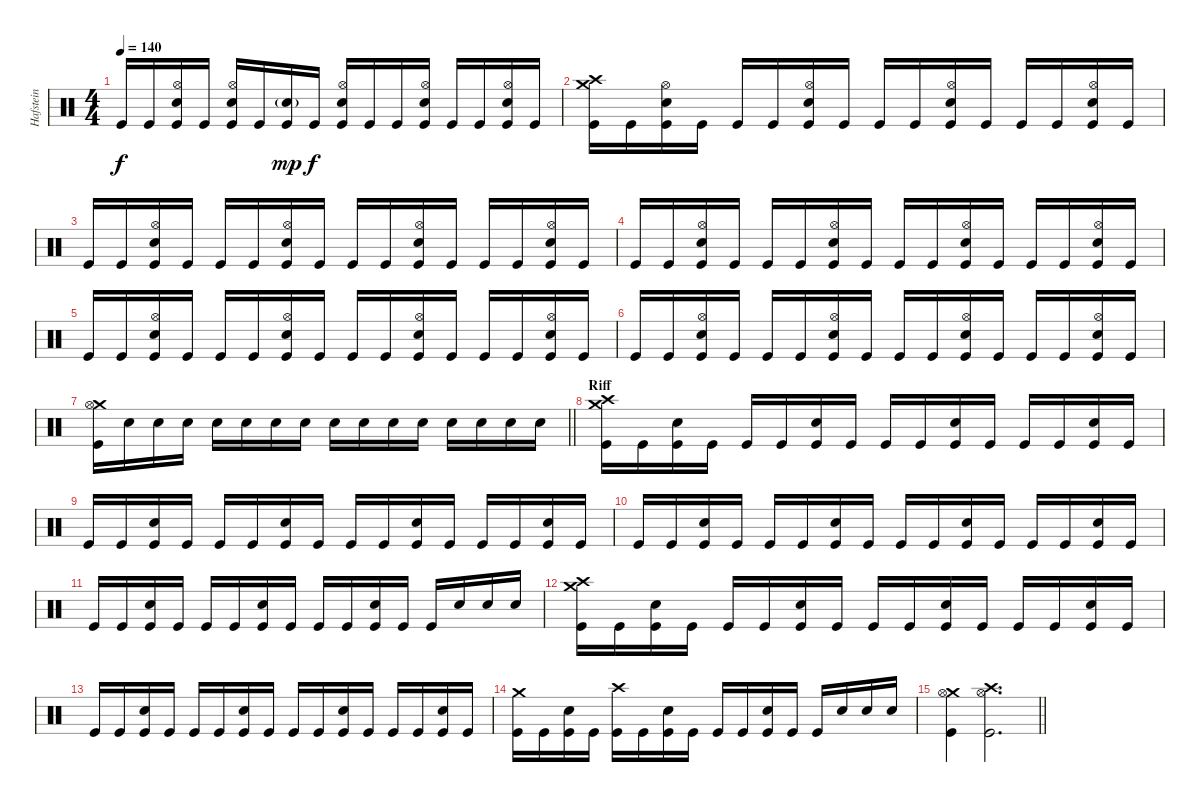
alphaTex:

\track ("Hafstein" "Hafstein") {instrument percussion}
\staff {score}
\articulation defaults
\ts (4 4)
\tempo 140
\clef neutral
\ks c "Kick (hit)".16{dy f} "Kick (hit)".16
("Hi-Hat (open)" "Electric Snare (hit)" "Kick (hit)").16 "Kick (hit)".16 ("Hi-Hat (open)" "Electric Snare (hit)" "Kick (hit)").16 "Kick (hit)".16 ("Electric Snare (hit)"{g} "Kick (hit)").16{dy mp} "Kick (hit)".16{dy f} ("Hi-Hat (open)" "Electric Snare (hit)" "Kick (hit)").16 "Kick (hit)".16 "Kick (hit)".16 ("Hi-Hat (open)" "Electric Snare (hit)" "Kick (hit)").16 "Kick (hit)".16 "Kick (hit)".16 ("Hi-Hat (open)" "Electric Snare (hit)" "Kick (hit)").16 "Kick (hit)".16 |
("Crash medium (hit)" "Crash high (hit)" "Kick (hit)").16 "Kick (hit)".16 ("Hi-Hat (open)" "Electric Snare (hit)" "Kick (hit)").16 "Kick (hit)".16 "Kick (hit)".16 "Kick (hit)".16 ("Hi-Hat (open)" "Electric Snare (hit)" "Kick (hit)").16 "Kick (hit)".16 "Kick (hit)".16 "Kick (hit)".16 ("Hi-Hat (open)" "Electric Snare (hit)" "Kick (hit)").16 "Kick (hit)".16 "Kick (hit)".16 "Kick (hit)".16 ("Hi-Hat (open)" "Electric Snare (hit)" "Kick (hit)").16 "Kick (hit)".16 |
"Kick (hit)".16 "Kick (hit)".16 ("Hi-Hat (open)" "Electric Snare (hit)" "Kick (hit)").16 "Kick (hit)".16 "Kick (hit)".16 "Kick (hit)".16 ("Hi-Hat (open)" "Electric Snare (hit)" "Kick (hit)").16 "Kick (hit)".16 "Kick (hit)".16 "Kick (hit)".16 ("Hi-Hat (open)" "Electric Snare (hit)" "Kick (hit)").16 "Kick (hit)".16 "Kick (hit)".16 "Kick (hit)".16 ("Hi-Hat (open)" "Electric Snare (hit)" "Kick (hit)").16 "Kick (hit)".16 |
"Kick (hit)".16 "Kick (hit)".16 ("Hi-Hat (open)" "Electric Snare (hit)" "Kick (hit)").16 "Kick (hit)".16 "Kick (hit)".16 "Kick (hit)".16 ("Hi-Hat (open)" "Electric Snare (hit)" "Kick (hit)").16 "Kick (hit)".16 "Kick (hit)".16 "Kick (hit)".16 ("Hi-Hat (open)" "Electric Snare (hit)" "Kick (hit)").16 "Kick (hit)".16 "Kick (hit)".16 "Kick (hit)".16 ("Hi-Hat (open)" "Electric Snare (hit)" "Kick (hit)").16 "Kick (hit)".16 |
"Kick (hit)".16 "Kick (hit)".16 ("Hi-Hat (open)" "Electric Snare (hit)" "Kick (hit)").16 "Kick (hit)".16 "Kick (hit)".16 "Kick (hit)".16 ("Hi-Hat (open)" "Electric Snare (hit)" "Kick (hit)").16 "Kick (hit)".16 "Kick (hit)".16 "Kick (hit)".16 ("Hi-Hat (open)" "Electric Snare (hit)" "Kick (hit)").16 "Kick (hit)".16 "Kick (hit)".16 "Kick (hit)".16 ("Hi-Hat (open)" "Electric Snare (hit)" "Kick (hit)").16 "Kick (hit)".16 |
"Kick (hit)".16 "Kick (hit)".16 ("Hi-Hat (open)" "Electric Snare (hit)" "Kick (hit)").16 "Kick (hit)".16 "Kick (hit)".16 "Kick (hit)".16 ("Hi-Hat (open)" "Electric Snare (hit)" "Kick (hit)").16 "Kick (hit)".16 "Kick (hit)".16 "Kick (hit)".16 ("Hi-Hat (open)" "Electric Snare (hit)" "Kick (hit)").16 "Kick (hit)".16 "Kick (hit)".16 "Kick (hit)".16 ("Hi-Hat (open)" "Electric Snare (hit)" "Kick (hit)").16 "Kick (hit)".16 |
\barLineRight lightlight
("Crash medium (hit)" "Hi-Hat (open)" "Kick (hit)").16 "Electric Snare (hit)".16 "Electric Snare (hit)".16 "Electric Snare (hit)".16 "Electric Snare (hit)".16 "Electric Snare (hit)".16 "Electric Snare (hit)".16 "Electric Snare (hit)".16 "Electric Snare (hit)".16 "Electric Snare (hit)".16 "Electric Snare (hit)".16 "Electric Snare (hit)".16 "Electric Snare (hit)".16 "Electric Snare (hit)".16 "Electric Snare (hit)".16 "Electric Snare (hit)".16 |
\section ("" "Riff")
("Crash medium (hit)" "Crash high (hit)" "Kick (hit)").16 "Kick (hit)".16 ("Electric Snare (hit)" "Kick (hit)").16 "Kick (hit)".16 "Kick (hit)".16 "Kick (hit)".16 ("Electric Snare (hit)" "Kick (hit)").16 "Kick (hit)".16 "Kick (hit)".16 "Kick (hit)".16 ("Electric Snare (hit)" "Kick (hit)").16 "Kick (hit)".16 "Kick (hit)".16 "Kick (hit)".16 ("Electric Snare (hit)" "Kick (hit)").16 "Kick (hit)".16 |
"Kick (hit)".16 "Kick (hit)".16 ("Electric Snare (hit)" "Kick (hit)").16 "Kick (hit)".16 "Kick (hit)".16 "Kick (hit)".16 ("Electric Snare (hit)" "Kick (hit)").16 "Kick (hit)".16 "Kick (hit)".16 "Kick (hit)".16 ("Electric Snare (hit)" "Kick (hit)").16 "Kick (hit)".16 "Kick (hit)".16 "Kick (hit)".16 ("Electric Snare (hit)" "Kick (hit)").16 "Kick (hit)".16 |
"Kick (hit)".16 "Kick (hit)".16 ("Electric Snare (hit)" "Kick (hit)").16 "Kick (hit)".16 "Kick (hit)".16 "Kick (hit)".16 ("Electric Snare (hit)" "Kick (hit)").16 "Kick (hit)".16 "Kick (hit)".16 "Kick (hit)".16 ("Electric Snare (hit)" "Kick (hit)").16 "Kick (hit)".16 "Kick (hit)".16 "Kick (hit)".16 ("Electric Snare (hit)" "Kick (hit)").16 "Kick (hit)".16 |
"Kick (hit)".16 "Kick (hit)".16 ("Electric Snare (hit)" "Kick (hit)").16 "Kick (hit)".16 "Kick (hit)".16 "Kick (hit)".16 ("Electric Snare (hit)" "Kick (hit)").16 "Kick (hit)".16 "Kick (hit)".16 "Kick (hit)".16 ("Electric Snare (hit)" "Kick (hit)").16 "Kick (hit)".16 "Kick (hit)".16 "Electric Snare (hit)".16 "Electric Snare (hit)".16 "Electric Snare (hit)".16 |
("Crash medium (hit)" "Crash high (hit)" "Kick (hit)").16 "Kick (hit)".16 ("Electric Snare (hit)" "Kick (hit)").16 "Kick (hit)".16 "Kick (hit)".16 "Kick (hit)".16 ("Electric Snare (hit)" "Kick (hit)").16 "Kick (hit)".16 "Kick (hit)".16 "Kick (hit)".16 ("Electric Snare (hit)" "Kick (hit)").16 "Kick (hit)".16 "Kick (hit)".16 "Kick (hit)".16 ("Electric Snare (hit)" "Kick (hit)").16 "Kick (hit)".16 |
"Kick (hit)".16 "Kick (hit)".16 ("Electric Snare (hit)" "Kick (hit)").16 "Kick (hit)".16 "Kick (hit)".16 "Kick (hit)".16 ("Electric Snare (hit)" "Kick (hit)").16 "Kick (hit)".16 "Kick (hit)".16 "Kick (hit)".16 ("Electric Snare (hit)" "Kick (hit)").16 "Kick (hit)".16 "Kick (hit)".16 "Kick (hit)".16 ("Electric Snare (hit)" "Kick (hit)").16 "Kick (hit)".16 |
("Crash medium (hit)" "Kick (hit)").16 "Kick (hit)".16 ("Electric Snare (hit)" "Kick (hit)").16 "Kick (hit)".16 ("Crash high (hit)" "Kick (hit)").16 "Kick (hit)".16 ("Electric Snare (hit)" "Kick (hit)").16 "Kick (hit)".16 "Kick (hit)".16 "Kick (hit)".16 ("Electric Snare (hit)" "Kick (hit)").16 "Kick (hit)".16 "Kick (hit)".16 "Electric Snare (hit)".16 "Electric Snare (hit)".16 "Electric Snare (hit)".16 |
\barLineRight lightlight
("Crash medium (hit)" "Hi-Hat (open)" "Kick (hit)").4 ("Crash high (hit)" "Hi-Hat (open)" "Kick (hit)").2{d}
